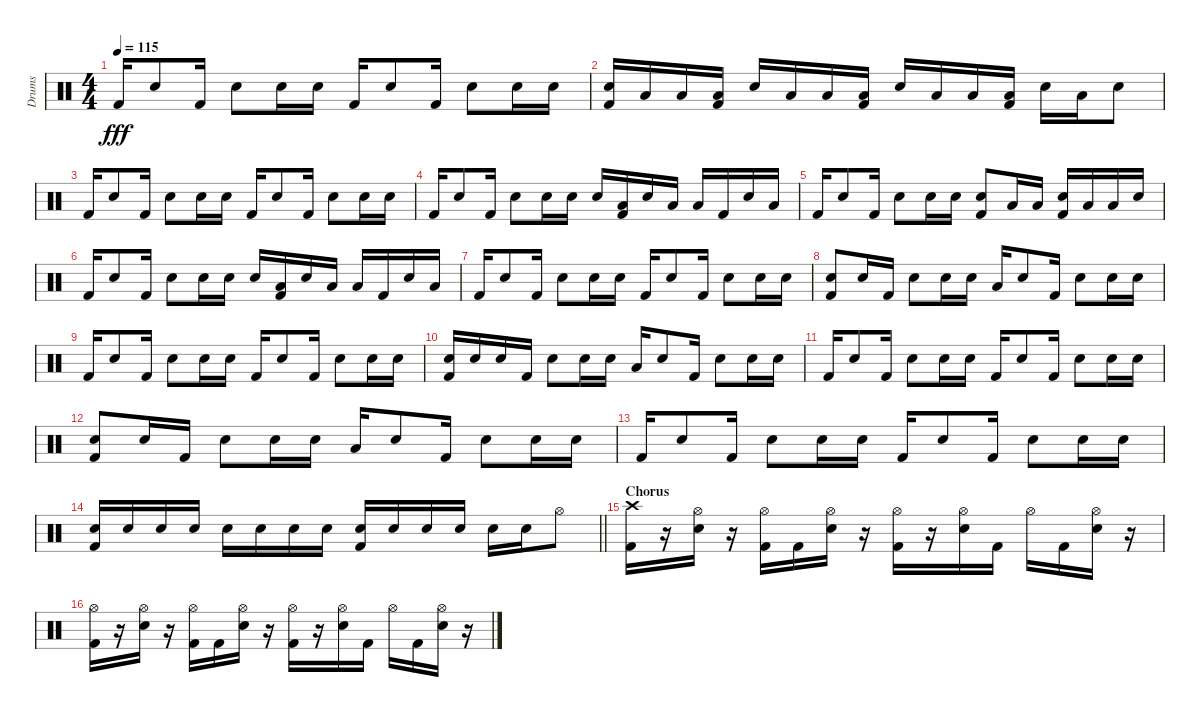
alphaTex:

\track ("Drums" "Drums") {instrument percussion}
\staff {score}
\articulation defaults
\ts (4 4)
\tempo 115
\clef neutral
\ks c "Kick (hit) 2".16{dy fff} "Snare (hit) 2".8 "Kick (hit) 2".16 "Snare (hit) 2".8 "Snare (hit) 2".16 "Snare (hit) 2".16 "Kick (hit) 2".16 "Snare (hit) 2".8 "Kick (hit) 2".16 "Snare (hit) 2".8 "Snare (hit) 2".16 "Snare (hit) 2".16
|
("Snare (hit) 2" "Kick (hit) 2").16 "Low Floor Tom (hit)".16 "Low Floor Tom (hit)".16 ("Low Floor Tom (hit)" "Kick (hit) 2").16 "Snare (hit) 2".16 "Low Floor Tom (hit)".16 "Low Floor Tom (hit)".16 ("Low Floor Tom (hit)" "Kick (hit) 2").16 "Snare (hit) 2".16 "Low Floor Tom (hit)".16 "Low Floor Tom (hit)".16 ("Low Floor Tom (hit)" "Kick (hit) 2").16 "Snare (hit) 2".16 "Low Floor Tom (hit)".16 "Snare (hit) 2".8 |
"Kick (hit) 2".16 "Snare (hit) 2".8 "Kick (hit) 2".16 "Snare (hit) 2".8 "Snare (hit) 2".16 "Snare (hit) 2".16 "Kick (hit) 2".16 "Snare (hit) 2".8 "Kick (hit) 2".16 "Snare (hit) 2".8 "Snare (hit) 2".16 "Snare (hit) 2".16 |
"Kick (hit) 2".16 "Snare (hit) 2".8 "Kick (hit) 2".16 "Snare (hit) 2".8 "Snare (hit) 2".16 "Snare (hit) 2".16 "Snare (hit) 2".16 ("Low Floor Tom (hit)" "Kick (hit) 2").16 "Snare (hit) 2".16 "Low Floor Tom (hit)".16 "Low Floor Tom (hit)".16 "Kick (hit) 2".16 "Snare (hit) 2".16 "Low Floor Tom (hit)".16 |
"Kick (hit) 2".16 "Snare (hit) 2".8 "Kick (hit) 2".16 "Snare (hit) 2".8 "Snare (hit) 2".16 "Snare (hit) 2".16 ("Snare (hit) 2" "Kick (hit) 2").8 "Low Floor Tom (hit)".16 "Low Tom (hit)".16 ("Snare (hit) 2" "Kick (hit) 2").16 "Low Floor Tom (hit)".16 "Low Tom (hit)".16 "Snare (hit) 2".16 |
"Kick (hit) 2".16 "Snare (hit) 2".8 "Kick (hit) 2".16 "Snare (hit) 2".8 "Snare (hit) 2".16 "Snare (hit) 2".16 "Snare (hit) 2".16 ("Low Floor Tom (hit)" "Kick (hit) 2").16 "Snare (hit) 2".16 "Low Floor Tom (hit)".16 "Low Floor Tom (hit)".16 "Kick (hit) 2".16 "Snare (hit) 2".16 "Low Floor Tom (hit)".16 |
"Kick (hit) 2".16 "Snare (hit) 2".8 "Kick (hit) 2".16 "Snare (hit) 2".8 "Snare (hit) 2".16 "Snare (hit) 2".16 "Kick (hit) 2".16 "Snare (hit) 2".8 "Kick (hit) 2".16 "Snare (hit) 2".8 "Snare (hit) 2".16 "Snare (hit) 2".16 |
("Snare (hit) 2" "Kick (hit) 2").8 "Snare (hit) 2".16 "Kick (hit) 2".16 "Snare (hit) 2".8 "Snare (hit) 2".16 "Snare (hit) 2".16 "Low Tom (hit)".16 "Snare (hit) 2".8 "Kick (hit) 2".16 "Snare (hit) 2".8 "Snare (hit) 2".16 "Snare (hit) 2".16 |
"Kick (hit) 2".16 "Snare (hit) 2".8 "Kick (hit) 2".16 "Snare (hit) 2".8 "Snare (hit) 2".16 "Snare (hit) 2".16 "Kick (hit) 2".16 "Snare (hit) 2".8 "Kick (hit) 2".16 "Snare (hit) 2".8 "Snare (hit) 2".16 "Snare (hit) 2".16 |
("Snare (hit) 2" "Kick (hit) 2").16 "Snare (hit) 2".16 "Snare (hit) 2".16 "Kick (hit) 2".16 "Snare (hit) 2".8 "Snare (hit) 2".16 "Snare (hit) 2".16 "Low Tom (hit)".16 "Snare (hit) 2".8 "Kick (hit) 2".16 "Snare (hit) 2".8 "Snare (hit) 2".16 "Snare (hit) 2".16 |
"Kick (hit) 2".16 "Snare (hit) 2".8 "Kick (hit) 2".16 "Snare (hit) 2".8 "Snare (hit) 2".16 "Snare (hit) 2".16 "Kick (hit) 2".16 "Snare (hit) 2".8 "Kick (hit) 2".16 "Snare (hit) 2".8 "Snare (hit) 2".16 "Snare (hit) 2".16 |
("Snare (hit) 2" "Kick (hit) 2").8 "Snare (hit) 2".16 "Kick (hit) 2".16 "Snare (hit) 2".8 "Snare (hit) 2".16 "Snare (hit) 2".16 "Low Tom (hit)".16 "Snare (hit) 2".8 "Kick (hit) 2".16 "Snare (hit) 2".8 "Snare (hit) 2".16 "Snare (hit) 2".16 |
"Kick (hit) 2".16 "Snare (hit) 2".8 "Kick (hit) 2".16 "Snare (hit) 2".8 "Snare (hit) 2".16 "Snare (hit) 2".16 "Kick (hit) 2".16 "Snare (hit) 2".8 "Kick (hit) 2".16 "Snare (hit) 2".8 "Snare (hit) 2".16 "Snare (hit) 2".16 |
\barLineRight lightlight
("Snare (hit) 2" "Kick (hit) 2").16{volume 4} "Snare (hit) 2".16{volume 16} "Snare (hit) 2".16 "Snare (hit) 2".16 "Snare (hit) 2".16 "Snare (hit) 2".16 "Snare (hit) 2".16 "Snare (hit) 2".16 ("Snare (hit) 2" "Kick (hit) 2").16 "Snare (hit) 2".16 "Snare (hit) 2".16 "Snare (hit) 2".16 "Snare (hit) 2".16 "Snare (hit) 2".16 "Hi-Hat (open)".8 |
\section ("" "Chorus")
("Crash high (hit)" "Kick (hit) 2").16 r.16 ("Hi-Hat (open)" "Snare (hit) 2").16 r.16 ("Hi-Hat (open)" "Kick (hit) 2").16 "Kick (hit) 2".16 ("Hi-Hat (open)" "Snare (hit) 2").16 r.16 ("Hi-Hat (open)" "Kick (hit) 2").16 r.16 ("Hi-Hat (open)" "Snare (hit) 2").16 "Kick (hit) 2".16 "Hi-Hat (open)".16 "Kick (hit) 2".16 ("Hi-Hat (open)" "Snare (hit) 2").16 r.16 |
("Hi-Hat (open)" "Kick (hit) 2").16 r.16 ("Hi-Hat (open)" "Snare (hit) 2").16 r.16 ("Hi-Hat (open)" "Kick (hit) 2").16 "Kick (hit) 2".16 ("Hi-Hat (open)" "Snare (hit) 2").16 r.16 ("Hi-Hat (open)" "Kick (hit) 2").16 r.16 ("Hi-Hat (open)" "Snare (hit) 2").16 "Kick (hit) 2".16 "Hi-Hat (open)".16 "Kick (hit) 2".16 ("Hi-Hat (open)" "Snare (hit) 2").16 r.16
